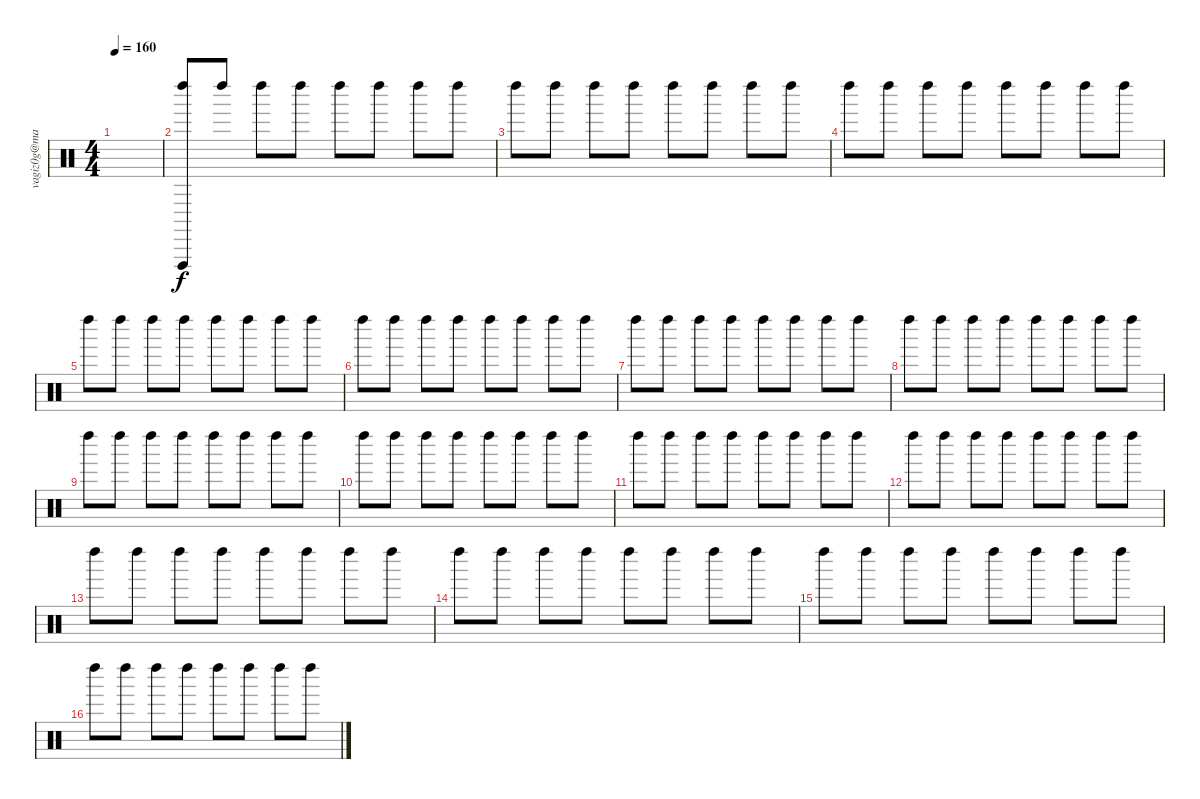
\track ("vagiz0g@mail.ru" "vagiz0g@ma") {instrument percussion}
\staff {score}
\articulation defaults
\ts (4 4)
\tempo 160
\clef neutral
\ks c
|
("Left Maraca (hit)" "Vibraslap (hit)").8 "Left Maraca (hit)".8 "Left Maraca (hit)".8 "Left Maraca (hit)".8 "Left Maraca (hit)".8 "Left Maraca (hit)".8 "Left Maraca (hit)".8 "Left Maraca (hit)".8 |
"Left Maraca (hit)".8 "Left Maraca (hit)".8 "Left Maraca (hit)".8 "Left Maraca (hit)".8 "Left Maraca (hit)".8 "Left Maraca (hit)".8 "Left Maraca (hit)".8 "Left Maraca (hit)".8 |
"Left Maraca (hit)".8 "Left Maraca (hit)".8 "Left Maraca (hit)".8 "Left Maraca (hit)".8 "Left Maraca (hit)".8 "Left Maraca (hit)".8 "Left Maraca (hit)".8 "Left Maraca (hit)".8 |
"Left Maraca (hit)".8 "Left Maraca (hit)".8 "Left Maraca (hit)".8 "Left Maraca (hit)".8 "Left Maraca (hit)".8 "Left Maraca (hit)".8 "Left Maraca (hit)".8 "Left Maraca (hit)".8 |
"Left Maraca (hit)".8 "Left Maraca (hit)".8 "Left Maraca (hit)".8 "Left Maraca (hit)".8 "Left Maraca (hit)".8 "Left Maraca (hit)".8 "Left Maraca (hit)".8 "Left Maraca (hit)".8 |
"Left Maraca (hit)".8 "Left Maraca (hit)".8 "Left Maraca (hit)".8 "Left Maraca (hit)".8 "Left Maraca (hit)".8 "Left Maraca (hit)".8 "Left Maraca (hit)".8 "Left Maraca (hit)".8 |
"Left Maraca (hit)".8 "Left Maraca (hit)".8 "Left Maraca (hit)".8 "Left Maraca (hit)".8 "Left Maraca (hit)".8 "Left Maraca (hit)".8 "Left Maraca (hit)".8 "Left Maraca (hit)".8 |
"Left Maraca (hit)".8 "Left Maraca (hit)".8 "Left Maraca (hit)".8 "Left Maraca (hit)".8 "Left Maraca (hit)".8 "Left Maraca (hit)".8 "Left Maraca (hit)".8 "Left Maraca (hit)".8 |
"Left Maraca (hit)".8 "Left Maraca (hit)".8 "Left Maraca (hit)".8 "Left Maraca (hit)".8 "Left Maraca (hit)".8 "Left Maraca (hit)".8 "Left Maraca (hit)".8 "Left Maraca (hit)".8 |
"Left Maraca (hit)".8 "Left Maraca (hit)".8 "Left Maraca (hit)".8 "Left Maraca (hit)".8 "Left Maraca (hit)".8 "Left Maraca (hit)".8 "Left Maraca (hit)".8 "Left Maraca (hit)".8 |
"Left Maraca (hit)".8 "Left Maraca (hit)".8 "Left Maraca (hit)".8 "Left Maraca (hit)".8 "Left Maraca (hit)".8 "Left Maraca (hit)".8 "Left Maraca (hit)".8 "Left Maraca (hit)".8 |
"Left Maraca (hit)".8 "Left Maraca (hit)".8 "Left Maraca (hit)".8 "Left Maraca (hit)".8 "Left Maraca (hit)".8 "Left Maraca (hit)".8 "Left Maraca (hit)".8 "Left Maraca (hit)".8 |
"Left Maraca (hit)".8 "Left Maraca (hit)".8 "Left Maraca (hit)".8 "Left Maraca (hit)".8 "Left Maraca (hit)".8 "Left Maraca (hit)".8 "Left Maraca (hit)".8 "Left Maraca (hit)".8 |
"Left Maraca (hit)".8 "Left Maraca (hit)".8 "Left Maraca (hit)".8 "Left Maraca (hit)".8 "Left Maraca (hit)".8 "Left Maraca (hit)".8 "Left Maraca (hit)".8 "Left Maraca (hit)".8 |
"Left Maraca (hit)".8 "Left Maraca (hit)".8 "Left Maraca (hit)".8 "Left Maraca (hit)".8 "Left Maraca (hit)".8 "Left Maraca (hit)".8 "Left Maraca (hit)".8 "Left Maraca (hit)".8
